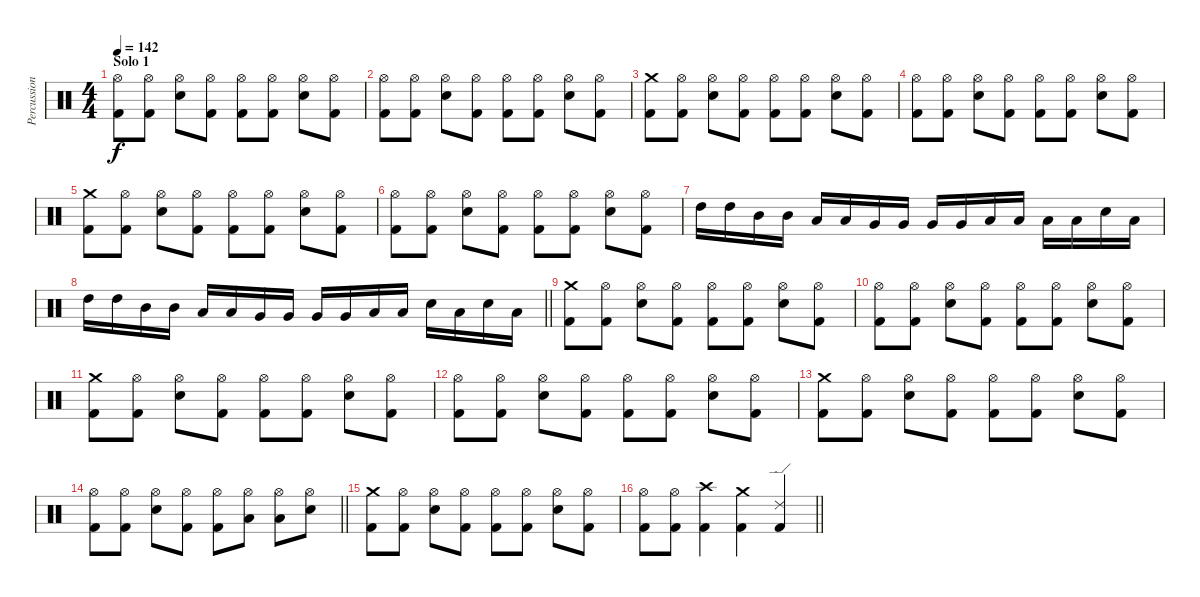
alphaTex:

\track ("Percussions" "Percussion") {instrument percussion}
\staff {score}
\articulation defaults
\ts (4 4)
\section ("" "Solo 1")
\tempo 142
\clef neutral
\ks c
("Hi-Hat (open)" "Kick (hit) 2").8{dy f} ("Hi-Hat (open)" "Kick (hit) 2").8 ("Hi-Hat (open)" "Electric Snare (hit)").8 ("Hi-Hat (open)" "Kick (hit) 2").8 ("Hi-Hat (open)" "Kick (hit) 2").8 ("Hi-Hat (open)" "Kick (hit) 2").8 ("Hi-Hat (open)" "Electric Snare (hit)").8 ("Hi-Hat (open)" "Kick (hit) 2").8 |
("Hi-Hat (open)" "Kick (hit) 2").8 ("Hi-Hat (open)" "Kick (hit) 2").8 ("Hi-Hat (open)" "Electric Snare (hit)").8 ("Hi-Hat (open)" "Kick (hit) 2").8 ("Hi-Hat (open)" "Kick (hit) 2").8 ("Hi-Hat (open)" "Kick (hit) 2").8 ("Hi-Hat (open)" "Electric Snare (hit)").8 ("Hi-Hat (open)" "Kick (hit) 2").8 |
("Crash medium (hit)" "Kick (hit) 2").8 ("Hi-Hat (open)" "Kick (hit) 2").8 ("Hi-Hat (open)" "Electric Snare (hit)").8 ("Hi-Hat (open)" "Kick (hit) 2").8 ("Hi-Hat (open)" "Kick (hit) 2").8 ("Hi-Hat (open)" "Kick (hit) 2").8 ("Hi-Hat (open)" "Electric Snare (hit)").8 ("Hi-Hat (open)" "Kick (hit) 2").8 |
("Hi-Hat (open)" "Kick (hit) 2").8 ("Hi-Hat (open)" "Kick (hit) 2").8 ("Hi-Hat (open)" "Electric Snare (hit)").8 ("Hi-Hat (open)" "Kick (hit) 2").8 ("Hi-Hat (open)" "Kick (hit) 2").8 ("Hi-Hat (open)" "Kick (hit) 2").8 ("Hi-Hat (open)" "Electric Snare (hit)").8 ("Hi-Hat (open)" "Kick (hit) 2").8 |
("Crash medium (hit)" "Kick (hit) 2").8 ("Hi-Hat (open)" "Kick (hit) 2").8 ("Hi-Hat (open)" "Electric Snare (hit)").8 ("Hi-Hat (open)" "Kick (hit) 2").8 ("Hi-Hat (open)" "Kick (hit) 2").8 ("Hi-Hat (open)" "Kick (hit) 2").8 ("Hi-Hat (open)" "Electric Snare (hit)").8 ("Hi-Hat (open)" "Kick (hit) 2").8 |
("Hi-Hat (open)" "Kick (hit) 2").8 ("Hi-Hat (open)" "Kick (hit) 2").8 ("Hi-Hat (open)" "Electric Snare (hit)").8 ("Hi-Hat (open)" "Kick (hit) 2").8 ("Hi-Hat (open)" "Kick (hit) 2").8 ("Hi-Hat (open)" "Kick (hit) 2").8 ("Hi-Hat (open)" "Electric Snare (hit)").8 ("Hi-Hat (open)" "Kick (hit) 2").8 |
"High Tom (hit)".16 "High Tom (hit)".16 "Mid Tom (hit)".16 "Mid Tom (hit)".16 "Low Tom (hit)".16 "Low Tom (hit)".16 "Very Low Tom (hit)".16 "Very Low Tom (hit)".16 "Very Low Tom (hit)".16 "Very Low Tom (hit)".16 "Low Floor Tom (hit)".16 "Low Floor Tom (hit)".16 "Low Floor Tom (hit)".16 "Low Floor Tom (hit)".16 "Electric Snare (hit)".16 "Low Floor Tom (hit)".16 |
\barLineRight lightlight "High Tom (hit)".16 "High Tom (hit)".16 "Mid Tom (hit)".16 "Mid Tom (hit)".16 "Low Tom (hit)".16 "Low Tom (hit)".16 "Very Low Tom (hit)".16 "Very Low Tom (hit)".16 "Very Low Tom (hit)".16 "Very Low Tom (hit)".16 "Low Floor Tom (hit)".16 "Low Floor Tom (hit)".16 "Electric Snare (hit)".16 "Low Floor Tom (hit)".16 "Electric Snare (hit)".16 "Low Floor Tom (hit)".16
|
("Crash medium (hit)" "Kick (hit) 2").8 ("Hi-Hat (open)" "Kick (hit) 2").8 ("Hi-Hat (open)" "Electric Snare (hit)").8 ("Hi-Hat (open)" "Kick (hit) 2").8 ("Hi-Hat (open)" "Kick (hit) 2").8 ("Hi-Hat (open)" "Kick (hit) 2").8 ("Hi-Hat (open)" "Electric Snare (hit)").8 ("Hi-Hat (open)" "Kick (hit) 2").8 |
("Hi-Hat (open)" "Kick (hit) 2").8 ("Hi-Hat (open)" "Kick (hit) 2").8 ("Hi-Hat (open)" "Electric Snare (hit)").8 ("Hi-Hat (open)" "Kick (hit) 2").8 ("Hi-Hat (open)" "Kick (hit) 2").8 ("Hi-Hat (open)" "Kick (hit) 2").8 ("Hi-Hat (open)" "Electric Snare (hit)").8 ("Hi-Hat (open)" "Kick (hit) 2").8 |
("Crash medium (hit)" "Kick (hit) 2").8 ("Hi-Hat (open)" "Kick (hit) 2").8 ("Hi-Hat (open)" "Electric Snare (hit)").8 ("Hi-Hat (open)" "Kick (hit) 2").8 ("Hi-Hat (open)" "Kick (hit) 2").8 ("Hi-Hat (open)" "Kick (hit) 2").8 ("Hi-Hat (open)" "Electric Snare (hit)").8 ("Hi-Hat (open)" "Kick (hit) 2").8 |
("Hi-Hat (open)" "Kick (hit) 2").8 ("Hi-Hat (open)" "Kick (hit) 2").8 ("Hi-Hat (open)" "Electric Snare (hit)").8 ("Hi-Hat (open)" "Kick (hit) 2").8 ("Hi-Hat (open)" "Kick (hit) 2").8 ("Hi-Hat (open)" "Kick (hit) 2").8 ("Hi-Hat (open)" "Electric Snare (hit)").8 ("Hi-Hat (open)" "Kick (hit) 2").8 |
("Crash medium (hit)" "Kick (hit) 2").8 ("Hi-Hat (open)" "Kick (hit) 2").8 ("Hi-Hat (open)" "Electric Snare (hit)").8 ("Hi-Hat (open)" "Kick (hit) 2").8 ("Hi-Hat (open)" "Kick (hit) 2").8 ("Hi-Hat (open)" "Kick (hit) 2").8 ("Hi-Hat (open)" "Electric Snare (hit)").8 ("Hi-Hat (open)" "Kick (hit) 2").8 |
\barLineRight lightlight
("Hi-Hat (open)" "Kick (hit) 2").8 ("Hi-Hat (open)" "Kick (hit) 2").8 ("Hi-Hat (open)" "Electric Snare (hit)").8 ("Hi-Hat (open)" "Kick (hit) 2").8 ("Hi-Hat (open)" "Kick (hit) 2").8 ("Hi-Hat (open)" "Low Floor Tom (hit)").8 ("Hi-Hat (open)" "Low Floor Tom (hit)").8 ("Hi-Hat (open)" "Electric Snare (hit)").8 |
("Crash medium (hit)" "Kick (hit) 2").8 ("Hi-Hat (open)" "Kick (hit) 2").8 ("Hi-Hat (open)" "Electric Snare (hit)").8 ("Hi-Hat (open)" "Kick (hit) 2").8 ("Hi-Hat (open)" "Kick (hit) 2").8 ("Hi-Hat (open)" "Kick (hit) 2").8 ("Hi-Hat (open)" "Electric Snare (hit)").8 ("Hi-Hat (open)" "Kick (hit) 2").8 |
\barLineRight lightlight
("Hi-Hat (open)" "Kick (hit) 2").8 ("Hi-Hat (open)" "Kick (hit) 2").8 ("Crash high (hit)" "Kick (hit) 2").4 ("Crash medium (hit)" "Kick (hit) 2").4 ("Ride (edge) 2" "Kick (hit) 2").4
